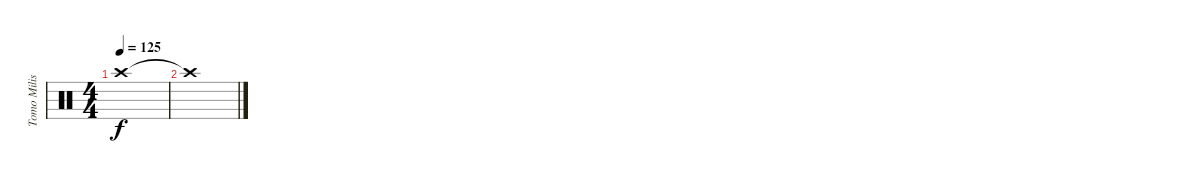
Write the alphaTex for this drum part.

\track ("Tomo Milisevic" "Tomo Milis") {instrument percussion}
\staff {score}
\articulation defaults
\ts (4 4)
\tempo 125
\clef neutral
\ks c "Crash high (hit)".1{dy f}
|
"Crash high (hit)"{t}.1
